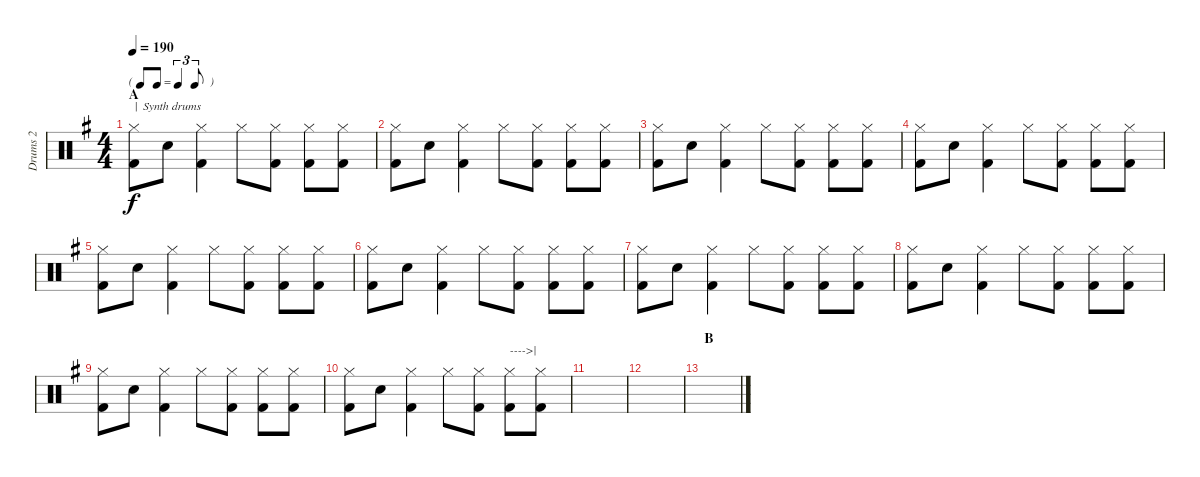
\track ("Drums 2" "Drums 2") {instrument percussion}
\staff {score}
\articulation defaults
\ts (4 4)
\tf triplet8th
\section ("" "A")
\tempo 190
\clef neutral
\ks g
("Hi-Hat (closed)" "Kick (hit) 2").8{txt "|  Synth drums" dy f volume 4} "Snare (hit) 2".8 ("Hi-Hat (closed)" "Kick (hit) 2").4{volume 13} "Hi-Hat (closed)".8 ("Hi-Hat (closed)" "Kick (hit) 2").8 ("Hi-Hat (closed)" "Kick (hit) 2").8 ("Hi-Hat (closed)" "Kick (hit) 2").8 |
("Hi-Hat (closed)" "Kick (hit) 2").8 "Snare (hit) 2".8 ("Hi-Hat (closed)" "Kick (hit) 2").4 "Hi-Hat (closed)".8 ("Hi-Hat (closed)" "Kick (hit) 2").8 ("Hi-Hat (closed)" "Kick (hit) 2").8 ("Hi-Hat (closed)" "Kick (hit) 2").8 |
("Hi-Hat (closed)" "Kick (hit) 2").8 "Snare (hit) 2".8 ("Hi-Hat (closed)" "Kick (hit) 2").4 "Hi-Hat (closed)".8 ("Hi-Hat (closed)" "Kick (hit) 2").8 ("Hi-Hat (closed)" "Kick (hit) 2").8 ("Hi-Hat (closed)" "Kick (hit) 2").8 |
("Hi-Hat (closed)" "Kick (hit) 2").8 "Snare (hit) 2".8 ("Hi-Hat (closed)" "Kick (hit) 2").4 "Hi-Hat (closed)".8 ("Hi-Hat (closed)" "Kick (hit) 2").8 ("Hi-Hat (closed)" "Kick (hit) 2").8 ("Hi-Hat (closed)" "Kick (hit) 2").8 |
("Hi-Hat (closed)" "Kick (hit) 2").8 "Snare (hit) 2".8 ("Hi-Hat (closed)" "Kick (hit) 2").4 "Hi-Hat (closed)".8 ("Hi-Hat (closed)" "Kick (hit) 2").8 ("Hi-Hat (closed)" "Kick (hit) 2").8 ("Hi-Hat (closed)" "Kick (hit) 2").8 |
("Hi-Hat (closed)" "Kick (hit) 2").8 "Snare (hit) 2".8 ("Hi-Hat (closed)" "Kick (hit) 2").4 "Hi-Hat (closed)".8 ("Hi-Hat (closed)" "Kick (hit) 2").8 ("Hi-Hat (closed)" "Kick (hit) 2").8 ("Hi-Hat (closed)" "Kick (hit) 2").8 |
("Hi-Hat (closed)" "Kick (hit) 2").8 "Snare (hit) 2".8 ("Hi-Hat (closed)" "Kick (hit) 2").4 "Hi-Hat (closed)".8 ("Hi-Hat (closed)" "Kick (hit) 2").8 ("Hi-Hat (closed)" "Kick (hit) 2").8 ("Hi-Hat (closed)" "Kick (hit) 2").8 |
("Hi-Hat (closed)" "Kick (hit) 2").8 "Snare (hit) 2".8 ("Hi-Hat (closed)" "Kick (hit) 2").4 "Hi-Hat (closed)".8 ("Hi-Hat (closed)" "Kick (hit) 2").8 ("Hi-Hat (closed)" "Kick (hit) 2").8 ("Hi-Hat (closed)" "Kick (hit) 2").8 |
("Hi-Hat (closed)" "Kick (hit) 2").8 "Snare (hit) 2".8 ("Hi-Hat (closed)" "Kick (hit) 2").4 "Hi-Hat (closed)".8 ("Hi-Hat (closed)" "Kick (hit) 2").8 ("Hi-Hat (closed)" "Kick (hit) 2").8 ("Hi-Hat (closed)" "Kick (hit) 2").8 |
("Hi-Hat (closed)" "Kick (hit) 2").8 "Snare (hit) 2".8 ("Hi-Hat (closed)" "Kick (hit) 2").4 "Hi-Hat (closed)".8 ("Hi-Hat (closed)" "Kick (hit) 2").8 ("Hi-Hat (closed)" "Kick (hit) 2").8{txt "---->|"} ("Hi-Hat (closed)" "Kick (hit) 2").8 |
|
|
\section ("" "B")
